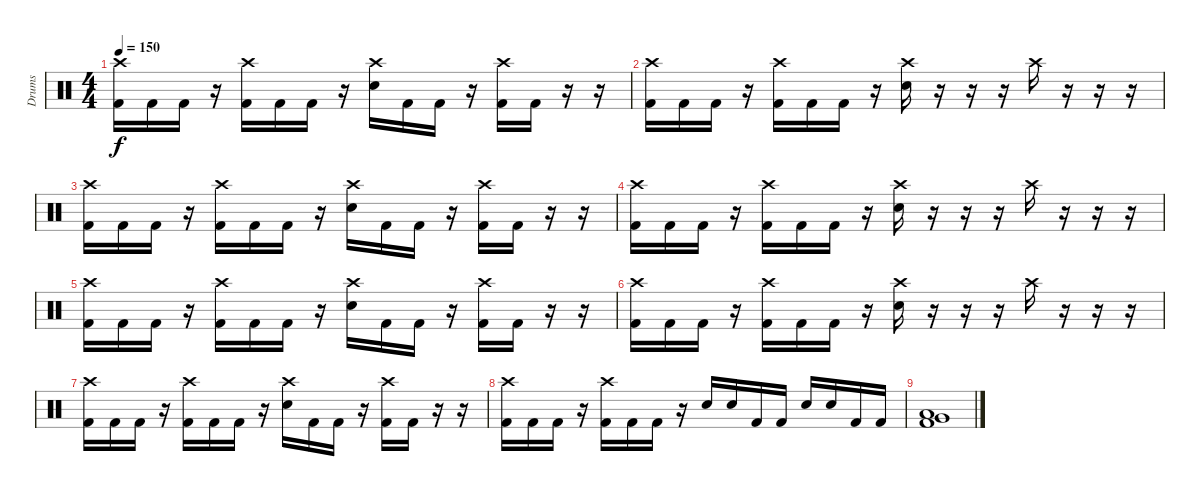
\track ("Drums" "Drums") {instrument percussion}
\staff {score}
\articulation defaults
\ts (4 4)
\tempo 150
\clef neutral
\ks c
("Crash high (hit)" "Kick (hit) 2").16{dy f} "Kick (hit) 2".16 "Kick (hit) 2".16 r.16 ("Crash high (hit)" "Kick (hit) 2").16 "Kick (hit) 2".16 "Kick (hit) 2".16 r.16 ("Crash high (hit)" "Snare (hit) 2").16 "Kick (hit) 2".16 "Kick (hit) 2".16 r.16 ("Crash high (hit)" "Kick (hit) 2").16 "Kick (hit) 2".16 r.16 r.16 |
("Crash high (hit)" "Kick (hit) 2").16 "Kick (hit) 2".16 "Kick (hit) 2".16 r.16 ("Crash high (hit)" "Kick (hit) 2").16 "Kick (hit) 2".16 "Kick (hit) 2".16 r.16 ("Crash high (hit)" "Snare (hit) 2").16 r.16 r.16 r.16 "Crash high (hit)".16 r.16 r.16 r.16 |
("Crash high (hit)" "Kick (hit) 2").16 "Kick (hit) 2".16 "Kick (hit) 2".16 r.16 ("Crash high (hit)" "Kick (hit) 2").16 "Kick (hit) 2".16 "Kick (hit) 2".16 r.16 ("Crash high (hit)" "Snare (hit) 2").16 "Kick (hit) 2".16 "Kick (hit) 2".16 r.16 ("Crash high (hit)" "Kick (hit) 2").16 "Kick (hit) 2".16 r.16 r.16 |
("Crash high (hit)" "Kick (hit) 2").16 "Kick (hit) 2".16 "Kick (hit) 2".16 r.16 ("Crash high (hit)" "Kick (hit) 2").16 "Kick (hit) 2".16 "Kick (hit) 2".16 r.16 ("Crash high (hit)" "Snare (hit) 2").16 r.16 r.16 r.16 "Crash high (hit)".16 r.16 r.16 r.16 |
("Crash high (hit)" "Kick (hit) 2").16 "Kick (hit) 2".16 "Kick (hit) 2".16 r.16 ("Crash high (hit)" "Kick (hit) 2").16 "Kick (hit) 2".16 "Kick (hit) 2".16 r.16 ("Crash high (hit)" "Snare (hit) 2").16 "Kick (hit) 2".16 "Kick (hit) 2".16 r.16 ("Crash high (hit)" "Kick (hit) 2").16 "Kick (hit) 2".16 r.16 r.16 |
("Crash high (hit)" "Kick (hit) 2").16 "Kick (hit) 2".16 "Kick (hit) 2".16 r.16 ("Crash high (hit)" "Kick (hit) 2").16 "Kick (hit) 2".16 "Kick (hit) 2".16 r.16 ("Crash high (hit)" "Snare (hit) 2").16 r.16 r.16 r.16 "Crash high (hit)".16 r.16 r.16 r.16 |
("Crash high (hit)" "Kick (hit) 2").16 "Kick (hit) 2".16 "Kick (hit) 2".16 r.16 ("Crash high (hit)" "Kick (hit) 2").16 "Kick (hit) 2".16 "Kick (hit) 2".16 r.16 ("Crash high (hit)" "Snare (hit) 2").16 "Kick (hit) 2".16 "Kick (hit) 2".16 r.16 ("Crash high (hit)" "Kick (hit) 2").16 "Kick (hit) 2".16 r.16 r.16 |
("Crash high (hit)" "Kick (hit) 2").16 "Kick (hit) 2".16 "Kick (hit) 2".16 r.16 ("Crash high (hit)" "Kick (hit) 2").16 "Kick (hit) 2".16 "Kick (hit) 2".16 r.16 "Snare (hit) 2".16 "Snare (hit) 2".16 "Kick (hit) 2".16 "Kick (hit) 2".16 "Snare (hit) 2".16 "Snare (hit) 2".16 "Kick (hit) 2".16 "Kick (hit) 2".16 |
("Very Low Tom (hit)" "Low Tom (hit)" "Kick (hit) 2").1
